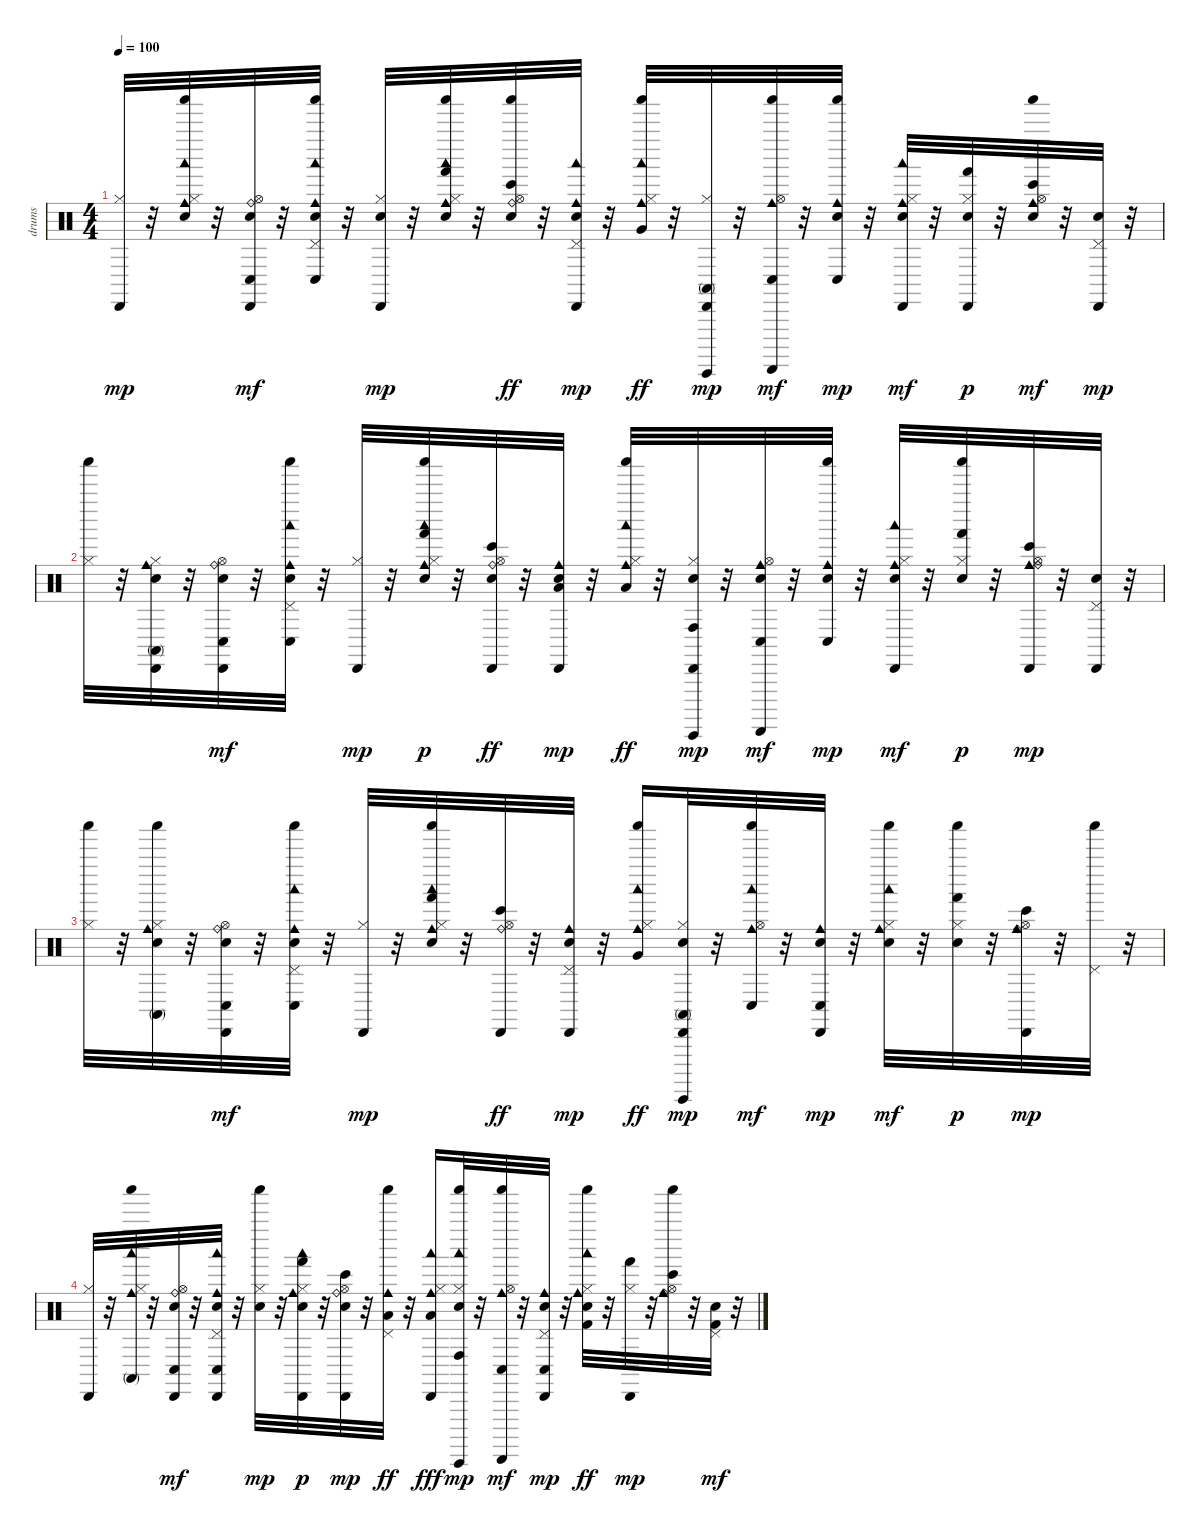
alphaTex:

\track ("drums" "drums") {instrument percussion}
\staff {score}
\articulation defaults
\ts (4 4)
\tempo 100
\clef neutral
\ks c
("Hi-Hat (closed)" "Cabasa (hit)").32{dy mp} r.32 ("Snare (hit) 2" "Hi-Hat (closed)" "Woodblock low (hit)" "Shaker (hit)" "Cowbell medium (hit)").32 r.32 ("Snare (hit) 2" "Hi-Hat (open)" "Cabasa (hit)" "Ride (bell)" "Conga low (hit)").32{dy mf} r.32 ("Snare (hit) 2" "Pedal Hi-Hat (hit)" "Woodblock low (hit)" "Shaker (hit)" "Cowbell medium (hit)" "Conga low (hit)").32 r.32 ("Snare (hit) 2" "Hi-Hat (closed)" "Cabasa (hit)").32{dy mp} r.32 ("Snare (hit) 2" "Hi-Hat (closed)" "Woodblock low (hit)" "Shaker (hit)" "Cowbell medium (hit)" "Hand (hit)").32 r.32 ("Snare (hit) 2" "Hi-Hat (open)" "Shaker (hit)" "Ride (bell)" "Bongo High (hit)").32{dy ff} r.32 ("Snare (hit) 2" "Pedal Hi-Hat (hit)" "Woodblock low (hit)" "Cabasa (hit)" "Cowbell medium (hit)").32{dy mp} r.32 ("Hi-Hat (closed)" "Woodblock low (hit)" "Shaker (hit)" "Cowbell medium (hit)" "Very Low Tom (hit)").32{dy ff} r.32 ("Hi-Hat (closed)" "Cabasa (hit)" "Guiro (hit)" "Conga high (mute)").32{dy mp} r.32 ("Hi-Hat (open)" "Shaker (hit)" "Guiro (scrap-return)" "Cowbell medium (hit)" "Conga low (hit)").32{dy mf} r.32 ("Snare (hit) 2" "Shaker (hit)" "Cowbell medium (hit)" "Conga low (hit)").32{dy mp} r.32 ("Snare (hit) 2" "Hi-Hat (closed)" "Woodblock low (hit)" "Cabasa (hit)" "Cowbell medium (hit)").32{dy mf} r.32 ("Snare (hit) 2" "Hi-Hat (closed)" "Cabasa (hit)" "Hand (hit)").32{dy p} r.32 ("Snare (hit) 2" "Hi-Hat (open)" "Shaker (hit)" "Cowbell medium (hit)" "Bongo High (hit)").32{dy mf} r.32 ("Snare (hit) 2" "Pedal Hi-Hat (hit)" "Cabasa (hit)").32{dy mp} r.32 |
("Hi-Hat (closed)" "Shaker (hit)").32 r.32 ("Snare (hit) 2" "Hi-Hat (closed)" "Cabasa (hit)" "Cowbell medium (hit)" "Conga high (mute)").32 r.32 ("Snare (hit) 2" "Hi-Hat (open)" "Cabasa (hit)" "Ride (bell)" "Conga low (hit)").32{dy mf} r.32 ("Snare (hit) 2" "Pedal Hi-Hat (hit)" "Woodblock low (hit)" "Shaker (hit)" "Cowbell medium (hit)" "Conga low (hit)").32 r.32 ("Hi-Hat (closed)" "Cabasa (hit)").32{dy mp} r.32 ("Snare (hit) 2" "Hi-Hat (closed)" "Woodblock low (hit)" "Shaker (hit)" "Cowbell medium (hit)" "Hand (hit)").32{dy p} r.32 ("Snare (hit) 2" "Hi-Hat (open)" "Cabasa (hit)" "Ride (bell)" "Bongo High (hit)").32{dy ff} r.32 ("Snare (hit) 2" "Cabasa (hit)" "Cowbell medium (hit)" "Low Tom (hit)").32{dy mp} r.32 ("Hi-Hat (closed)" "Woodblock low (hit)" "Shaker (hit)" "Cowbell medium (hit)" "Low Floor Tom (hit)").32{dy ff} r.32 ("Snare (hit) 2" "Hi-Hat (closed)" "Cabasa (hit)" "Guiro (hit)" "Conga high (hit)").32{dy mp} r.32 ("Snare (hit) 2" "Hi-Hat (open)" "Guiro (scrap-return)" "Cowbell medium (hit)" "Conga low (hit)").32{dy mf} r.32 ("Snare (hit) 2" "Shaker (hit)" "Cowbell medium (hit)" "Conga low (hit)").32{dy mp} r.32 ("Snare (hit) 2" "Hi-Hat (closed)" "Woodblock low (hit)" "Cabasa (hit)" "Cowbell medium (hit)").32{dy mf} r.32 ("Snare (hit) 2" "Hi-Hat (closed)" "Shaker (hit)" "Hand (hit)").32{dy p} r.32 ("Hi-Hat (open)" "Cabasa (hit)" "Cowbell medium (hit)" "Ride (bell)" "Bongo High (hit)").32{dy mp} r.32 ("Snare (hit) 2" "Pedal Hi-Hat (hit)" "Cabasa (hit)").32 r.32 |
("Hi-Hat (closed)" "Shaker (hit)").32 r.32 ("Snare (hit) 2" "Hi-Hat (closed)" "Shaker (hit)" "Cowbell medium (hit)" "Conga high (mute)").32 r.32 ("Snare (hit) 2" "Hi-Hat (open)" "Cabasa (hit)" "Ride (bell)" "Conga low (hit)").32{dy mf} r.32 ("Snare (hit) 2" "Pedal Hi-Hat (hit)" "Woodblock low (hit)" "Shaker (hit)" "Cowbell medium (hit)" "Conga low (hit)").32 r.32 ("Hi-Hat (closed)" "Cabasa (hit)").32{dy mp} r.32 ("Snare (hit) 2" "Hi-Hat (closed)" "Woodblock low (hit)" "Shaker (hit)" "Cowbell medium (hit)" "Hand (hit)").32 r.32 ("Hi-Hat (open)" "Cabasa (hit)" "Ride (bell)" "Bongo High (hit)").32{dy ff} r.32 ("Snare (hit) 2" "Pedal Hi-Hat (hit)" "Cabasa (hit)" "Cowbell medium (hit)").32{dy mp} r.32 ("Hi-Hat (closed)" "Woodblock low (hit)" "Shaker (hit)" "Cowbell medium (hit)" "Very Low Tom (hit)").16{dy ff} ("Snare (hit) 2" "Hi-Hat (closed)" "Cabasa (hit)" "Guiro (hit)" "Conga high (mute)").32{dy mp} r.32 ("Hi-Hat (open)" "Woodblock low (hit)" "Shaker (hit)" "Cowbell medium (hit)" "Conga low (hit)").32{dy mf} r.32 ("Snare (hit) 2" "Cabasa (hit)" "Cowbell medium (hit)" "Conga low (hit)").32{dy mp} r.32 ("Snare (hit) 2" "Hi-Hat (closed)" "Woodblock low (hit)" "Shaker (hit)" "Cowbell medium (hit)").32{dy mf} r.32 ("Snare (hit) 2" "Hi-Hat (closed)" "Shaker (hit)" "Hand (hit)").32{dy p} r.32 ("Hi-Hat (open)" "Cabasa (hit)" "Cowbell medium (hit)" "Ride (bell)" "Bongo High (hit)").32{dy mp} r.32 ("Pedal Hi-Hat (hit)" "Shaker (hit)").32 r.32 |
("Hi-Hat (closed)" "Cabasa (hit)").32 r.32 ("Hi-Hat (closed)" "Woodblock low (hit)" "Shaker (hit)" "Cowbell medium (hit)" "Conga high (mute)").32 r.32 ("Snare (hit) 2" "Hi-Hat (open)" "Cabasa (hit)" "Ride (bell)" "Conga low (hit)").32{dy mf} r.32 ("Snare (hit) 2" "Pedal Hi-Hat (hit)" "Woodblock low (hit)" "Cabasa (hit)" "Cowbell medium (hit)" "Conga low (hit)").32 r.32 ("Snare (hit) 2" "Hi-Hat (closed)" "Shaker (hit)").32{dy mp} r.32 ("Snare (hit) 2" "Hi-Hat (closed)" "Woodblock low (hit)" "Cabasa (hit)" "Cowbell medium (hit)" "Hand (hit)").32{dy p} r.32 ("Snare (hit) 2" "Hi-Hat (open)" "Cabasa (hit)" "Ride (bell)" "Bongo High (hit)").32{dy mp} r.32 ("Pedal Hi-Hat (hit)" "Shaker (hit)" "Cowbell medium (hit)" "Low Tom (hit)").32{dy ff} r.32 ("Hi-Hat (closed)" "Woodblock low (hit)" "Cabasa (hit)" "Cowbell medium (hit)" "Low Floor Tom (hit)").16{dy fff} ("Snare (hit) 2" "Hi-Hat (closed)" "Woodblock low (hit)" "Shaker (hit)" "Guiro (hit)" "Conga high (hit)").32{dy mp} r.32 ("Hi-Hat (open)" "Shaker (hit)" "Guiro (scrap-return)" "Cowbell medium (hit)" "Conga low (hit)").32{dy mf} r.32 ("Snare (hit) 2" "Pedal Hi-Hat (hit)" "Cabasa (hit)" "Cowbell medium (hit)" "Conga low (hit)").32{dy mp} r.32 ("Snare (hit) 2" "Hi-Hat (closed)" "Woodblock low (hit)" "Shaker (hit)" "Cowbell medium (hit)" "Kick (hit) 2").32{dy ff} r.32 ("Hi-Hat (closed)" "Cabasa (hit)" "Hand (hit)").32{dy mp} r.32 ("Hi-Hat (open)" "Shaker (hit)" "Cowbell medium (hit)" "Ride (bell)" "Bongo High (hit)").32 r.32 ("Snare (hit) 2" "Pedal Hi-Hat (hit)" "Kick (hit) 2").32{dy mf} r.32
